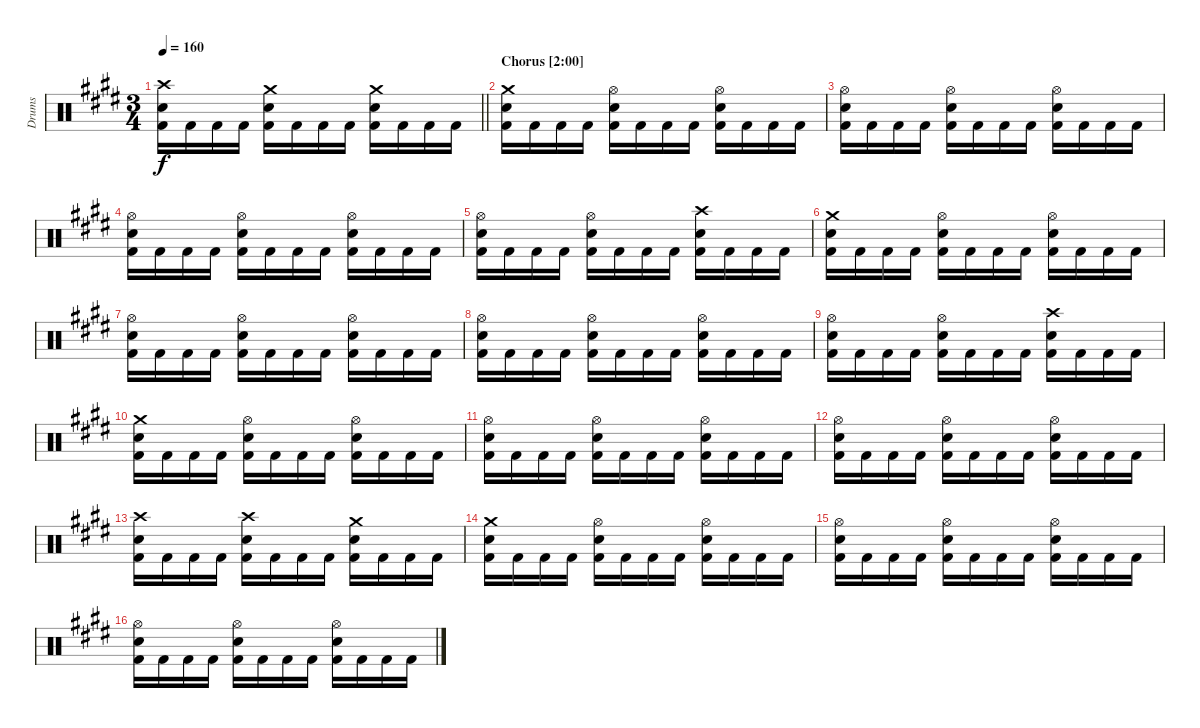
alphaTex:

\track ("Drums" "Drums") {instrument percussion}
\staff {score}
\articulation defaults
\ts (3 4)
\tempo 160
\clef neutral
\barLineRight lightlight
\ks c#minor
("Crash high (hit)" "Snare (hit) 2" "Kick (hit) 2").16{dy f} "Kick (hit) 2".16 "Kick (hit) 2".16 "Kick (hit) 2".16 ("Crash medium (hit)" "Snare (hit) 2" "Kick (hit) 2").16 "Kick (hit) 2".16 "Kick (hit) 2".16 "Kick (hit) 2".16 ("Crash medium (hit)" "Snare (hit) 2" "Kick (hit) 2").16 "Kick (hit) 2".16 "Kick (hit) 2".16 "Kick (hit) 2".16 |
\section ("" "Chorus [2:00]")
("Crash medium (hit)" "Snare (hit) 2" "Kick (hit) 2").16 "Kick (hit) 2".16 "Kick (hit) 2".16 "Kick (hit) 2".16 ("Hi-Hat (open)" "Snare (hit) 2" "Kick (hit) 2").16 "Kick (hit) 2".16 "Kick (hit) 2".16 "Kick (hit) 2".16 ("Hi-Hat (open)" "Snare (hit) 2" "Kick (hit) 2").16 "Kick (hit) 2".16 "Kick (hit) 2".16 "Kick (hit) 2".16 |
("Hi-Hat (open)" "Snare (hit) 2" "Kick (hit) 2").16 "Kick (hit) 2".16 "Kick (hit) 2".16 "Kick (hit) 2".16 ("Hi-Hat (open)" "Snare (hit) 2" "Kick (hit) 2").16 "Kick (hit) 2".16 "Kick (hit) 2".16 "Kick (hit) 2".16 ("Hi-Hat (open)" "Snare (hit) 2" "Kick (hit) 2").16 "Kick (hit) 2".16 "Kick (hit) 2".16 "Kick (hit) 2".16 |
("Hi-Hat (open)" "Snare (hit) 2" "Kick (hit) 2").16 "Kick (hit) 2".16 "Kick (hit) 2".16 "Kick (hit) 2".16 ("Hi-Hat (open)" "Snare (hit) 2" "Kick (hit) 2").16 "Kick (hit) 2".16 "Kick (hit) 2".16 "Kick (hit) 2".16 ("Hi-Hat (open)" "Snare (hit) 2" "Kick (hit) 2").16 "Kick (hit) 2".16 "Kick (hit) 2".16 "Kick (hit) 2".16 |
("Hi-Hat (open)" "Snare (hit) 2" "Kick (hit) 2").16 "Kick (hit) 2".16 "Kick (hit) 2".16 "Kick (hit) 2".16 ("Hi-Hat (open)" "Snare (hit) 2" "Kick (hit) 2").16 "Kick (hit) 2".16 "Kick (hit) 2".16 "Kick (hit) 2".16 ("Crash high (hit)" "Snare (hit) 2" "Kick (hit) 2").16 "Kick (hit) 2".16 "Kick (hit) 2".16 "Kick (hit) 2".16 |
("Crash medium (hit)" "Snare (hit) 2" "Kick (hit) 2").16 "Kick (hit) 2".16 "Kick (hit) 2".16 "Kick (hit) 2".16 ("Hi-Hat (open)" "Snare (hit) 2" "Kick (hit) 2").16 "Kick (hit) 2".16 "Kick (hit) 2".16 "Kick (hit) 2".16 ("Hi-Hat (open)" "Snare (hit) 2" "Kick (hit) 2").16 "Kick (hit) 2".16 "Kick (hit) 2".16 "Kick (hit) 2".16 |
("Hi-Hat (open)" "Snare (hit) 2" "Kick (hit) 2").16 "Kick (hit) 2".16 "Kick (hit) 2".16 "Kick (hit) 2".16 ("Hi-Hat (open)" "Snare (hit) 2" "Kick (hit) 2").16 "Kick (hit) 2".16 "Kick (hit) 2".16 "Kick (hit) 2".16 ("Hi-Hat (open)" "Snare (hit) 2" "Kick (hit) 2").16 "Kick (hit) 2".16 "Kick (hit) 2".16 "Kick (hit) 2".16 |
("Hi-Hat (open)" "Snare (hit) 2" "Kick (hit) 2").16 "Kick (hit) 2".16 "Kick (hit) 2".16 "Kick (hit) 2".16 ("Hi-Hat (open)" "Snare (hit) 2" "Kick (hit) 2").16 "Kick (hit) 2".16 "Kick (hit) 2".16 "Kick (hit) 2".16 ("Hi-Hat (open)" "Snare (hit) 2" "Kick (hit) 2").16 "Kick (hit) 2".16 "Kick (hit) 2".16 "Kick (hit) 2".16 |
("Hi-Hat (open)" "Snare (hit) 2" "Kick (hit) 2").16 "Kick (hit) 2".16 "Kick (hit) 2".16 "Kick (hit) 2".16 ("Hi-Hat (open)" "Snare (hit) 2" "Kick (hit) 2").16 "Kick (hit) 2".16 "Kick (hit) 2".16 "Kick (hit) 2".16 ("Crash high (hit)" "Snare (hit) 2" "Kick (hit) 2").16 "Kick (hit) 2".16 "Kick (hit) 2".16 "Kick (hit) 2".16 |
("Crash medium (hit)" "Snare (hit) 2" "Kick (hit) 2").16 "Kick (hit) 2".16 "Kick (hit) 2".16 "Kick (hit) 2".16 ("Hi-Hat (open)" "Snare (hit) 2" "Kick (hit) 2").16 "Kick (hit) 2".16 "Kick (hit) 2".16 "Kick (hit) 2".16 ("Hi-Hat (open)" "Snare (hit) 2" "Kick (hit) 2").16 "Kick (hit) 2".16 "Kick (hit) 2".16 "Kick (hit) 2".16 |
("Hi-Hat (open)" "Snare (hit) 2" "Kick (hit) 2").16 "Kick (hit) 2".16 "Kick (hit) 2".16 "Kick (hit) 2".16 ("Hi-Hat (open)" "Snare (hit) 2" "Kick (hit) 2").16 "Kick (hit) 2".16 "Kick (hit) 2".16 "Kick (hit) 2".16 ("Hi-Hat (open)" "Snare (hit) 2" "Kick (hit) 2").16 "Kick (hit) 2".16 "Kick (hit) 2".16 "Kick (hit) 2".16 |
("Hi-Hat (open)" "Snare (hit) 2" "Kick (hit) 2").16 "Kick (hit) 2".16 "Kick (hit) 2".16 "Kick (hit) 2".16 ("Hi-Hat (open)" "Snare (hit) 2" "Kick (hit) 2").16 "Kick (hit) 2".16 "Kick (hit) 2".16 "Kick (hit) 2".16 ("Hi-Hat (open)" "Snare (hit) 2" "Kick (hit) 2").16 "Kick (hit) 2".16 "Kick (hit) 2".16 "Kick (hit) 2".16 |
("Crash high (hit)" "Snare (hit) 2" "Kick (hit) 2").16 "Kick (hit) 2".16 "Kick (hit) 2".16 "Kick (hit) 2".16 ("Crash high (hit)" "Snare (hit) 2" "Kick (hit) 2").16 "Kick (hit) 2".16 "Kick (hit) 2".16 "Kick (hit) 2".16 ("Crash medium (hit)" "Snare (hit) 2" "Kick (hit) 2").16 "Kick (hit) 2".16 "Kick (hit) 2".16 "Kick (hit) 2".16 |
("Crash medium (hit)" "Snare (hit) 2" "Kick (hit) 2").16 "Kick (hit) 2".16 "Kick (hit) 2".16 "Kick (hit) 2".16 ("Hi-Hat (open)" "Snare (hit) 2" "Kick (hit) 2").16 "Kick (hit) 2".16 "Kick (hit) 2".16 "Kick (hit) 2".16 ("Hi-Hat (open)" "Snare (hit) 2" "Kick (hit) 2").16 "Kick (hit) 2".16 "Kick (hit) 2".16 "Kick (hit) 2".16 |
("Hi-Hat (open)" "Snare (hit) 2" "Kick (hit) 2").16 "Kick (hit) 2".16 "Kick (hit) 2".16 "Kick (hit) 2".16 ("Hi-Hat (open)" "Snare (hit) 2" "Kick (hit) 2").16 "Kick (hit) 2".16 "Kick (hit) 2".16 "Kick (hit) 2".16 ("Hi-Hat (open)" "Snare (hit) 2" "Kick (hit) 2").16 "Kick (hit) 2".16 "Kick (hit) 2".16 "Kick (hit) 2".16 |
("Hi-Hat (open)" "Snare (hit) 2" "Kick (hit) 2").16 "Kick (hit) 2".16 "Kick (hit) 2".16 "Kick (hit) 2".16 ("Hi-Hat (open)" "Snare (hit) 2" "Kick (hit) 2").16 "Kick (hit) 2".16 "Kick (hit) 2".16 "Kick (hit) 2".16 ("Hi-Hat (open)" "Snare (hit) 2" "Kick (hit) 2").16 "Kick (hit) 2".16 "Kick (hit) 2".16 "Kick (hit) 2".16
